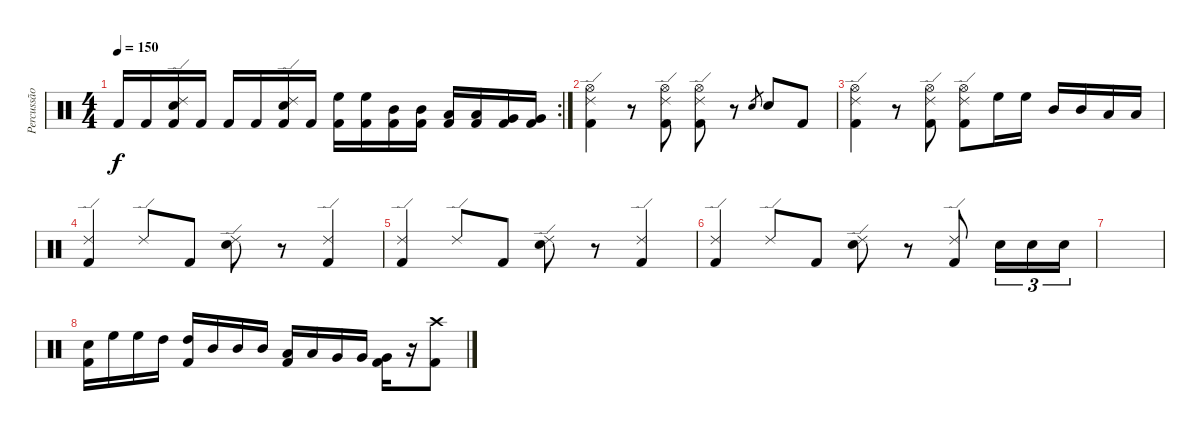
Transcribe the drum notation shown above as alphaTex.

\track ("Percussão" "Percussão") {instrument percussion}
\staff {score}
\articulation defaults
\rc 2
\ts (4 4)
\tempo 150
\clef neutral
\ks c "Kick (hit) 2".16{dy f} "Kick (hit) 2".16
("Ride (edge) 2" "Snare (hit) 2" "Kick (hit) 2").16 "Kick (hit) 2".16 "Kick (hit) 2".16 "Kick (hit) 2".16 ("Ride (edge) 2" "Snare (hit) 2" "Kick (hit) 2").16 "Kick (hit) 2".16 ("High Floor Tom (hit)" "Kick (hit) 2").16 ("High Floor Tom (hit)" "Kick (hit) 2").16 ("Mid Tom (hit)" "Kick (hit) 2").16 ("Mid Tom (hit)" "Kick (hit) 2").16 ("Low Tom (hit)" "Kick (hit) 2").16 ("Low Tom (hit)" "Kick (hit) 2").16 ("Very Low Tom (hit)" "Kick (hit) 2").16 ("Very Low Tom (hit)" "Kick (hit) 2").16 |
("Ride (edge) 2" "Hi-Hat (open)" "Kick (hit) 2").4 r.8 ("Ride (edge) 2" "Hi-Hat (open)" "Kick (hit) 2").8 ("Ride (edge) 2" "Hi-Hat (open)" "Kick (hit) 2").8 r.8 "Snare (hit) 2".8{gr} "Snare (hit) 2".8 "Kick (hit) 2".8 |
("Ride (edge) 2" "Hi-Hat (open)" "Kick (hit) 2").4 r.8 ("Ride (edge) 2" "Hi-Hat (open)" "Kick (hit) 2").8 ("Ride (edge) 2" "Hi-Hat (open)" "Kick (hit) 2").8 "High Floor Tom (hit)".16 "High Floor Tom (hit)".16 "Mid Tom (hit)".16 "Mid Tom (hit)".16 "Low Tom (hit)".16 "Low Tom (hit)".16 |
("Ride (edge) 2" "Kick (hit) 2").4 "Ride (edge) 2".8 "Kick (hit) 2".8 ("Ride (edge) 2" "Snare (hit) 2").8 r.8 ("Ride (edge) 2" "Kick (hit) 2").4 |
("Ride (edge) 2" "Kick (hit) 2").4 "Ride (edge) 2".8 "Kick (hit) 2".8 ("Ride (edge) 2" "Snare (hit) 2").8 r.8 ("Ride (edge) 2" "Kick (hit) 2").4 |
("Ride (edge) 2" "Kick (hit) 2").4 "Ride (edge) 2".8 "Kick (hit) 2".8 ("Ride (edge) 2" "Snare (hit) 2").8 r.8 ("Ride (edge) 2" "Kick (hit) 2").8 "Snare (hit) 2".16{tu (3 2)} "Snare (hit) 2".16{tu (3 2)} "Snare (hit) 2".16{tu (3 2)} |
|
("Snare (hit) 2" "Kick (hit) 2").16 "High Floor Tom (hit)".16 "High Floor Tom (hit)".16 "High Tom (hit)".16 ("High Tom (hit)" "Kick (hit) 2").16 "Mid Tom (hit)".16 "Mid Tom (hit)".16 "Mid Tom (hit)".16 ("Low Tom (hit)" "Kick (hit) 2").16 "Low Tom (hit)".16 "Very Low Tom (hit)".16 "Very Low Tom (hit)".16 ("Very Low Tom (hit)" "Kick (hit) 2").16 r.16 ("Crash high (hit)" "Kick (hit) 2").8
